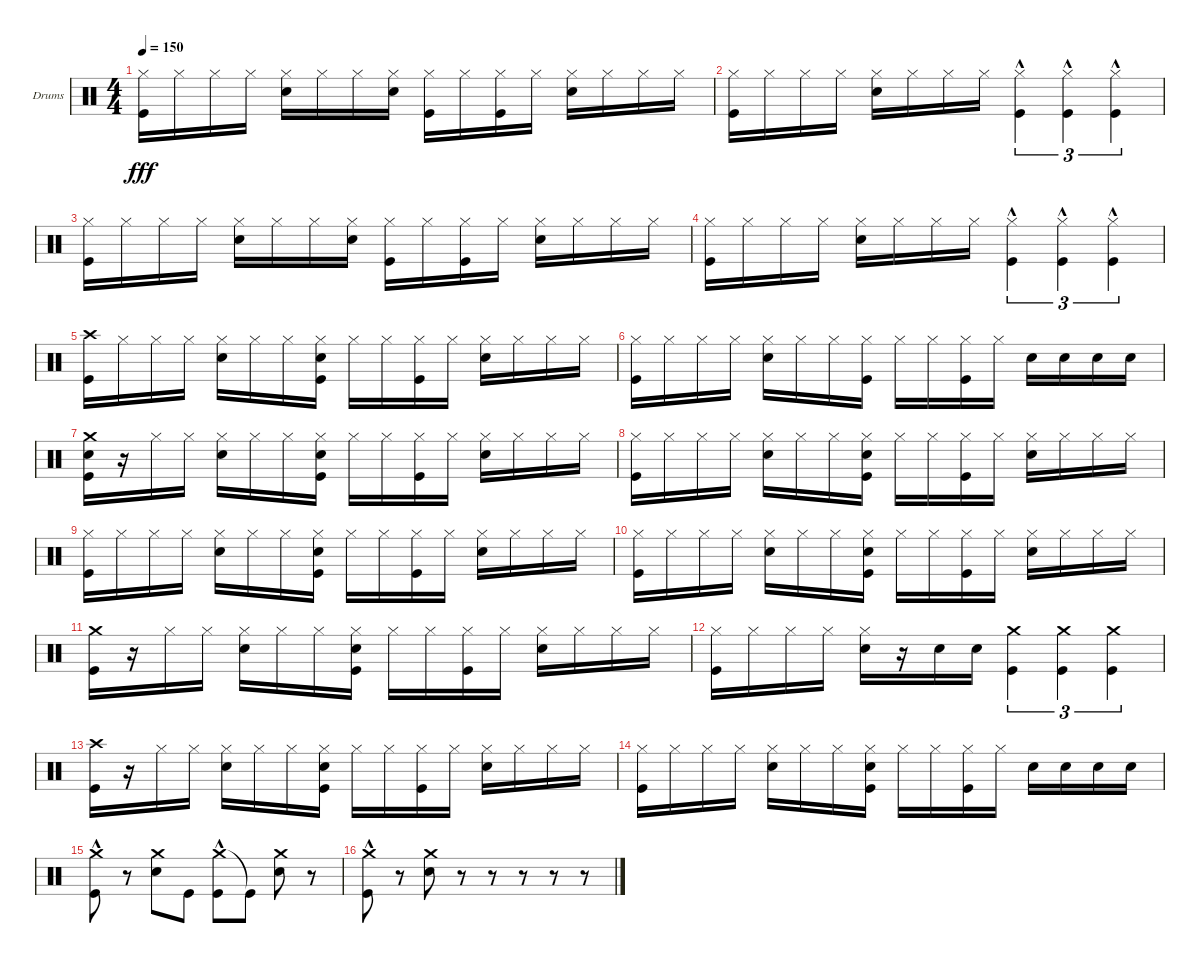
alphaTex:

\defaultSystemsLayout 4
\bracketExtendMode groupsimilarinstruments
\firstSystemTrackNameOrientation horizontal
\otherSystemsTrackNameOrientation horizontal
\track ("Matt Helders" "Drums") {instrument percussion}
\staff {score}
\articulation defaults
\ts (4 4)
\tempo 150
\clef neutral
\ks c
("Hi-Hat (closed)" "Kick (hit)").16{dy fff} "Hi-Hat (closed)".16 "Hi-Hat (closed)".16 "Hi-Hat (closed)".16 ("Hi-Hat (closed)" "Snare (hit) 2").16 "Hi-Hat (closed)".16 "Hi-Hat (closed)".16 ("Hi-Hat (closed)" "Snare (hit) 2").16 ("Hi-Hat (closed)" "Kick (hit)").16 "Hi-Hat (closed)".16 ("Hi-Hat (closed)" "Kick (hit)").16 "Hi-Hat (closed)".16 ("Hi-Hat (closed)" "Snare (hit) 2").16 "Hi-Hat (closed)".16 "Hi-Hat (closed)".16 "Hi-Hat (closed)".16 |
("Hi-Hat (closed)" "Kick (hit)").16 "Hi-Hat (closed)".16 "Hi-Hat (closed)".16 "Hi-Hat (closed)".16 ("Hi-Hat (closed)" "Snare (hit) 2").16 "Hi-Hat (closed)".16 "Hi-Hat (closed)".16 "Hi-Hat (closed)".16 ("Kick (hit)" "Hi-Hat (closed)"{hac}).4{tu (3 2)} ("Kick (hit)" "Hi-Hat (closed)"{hac}).4{tu (3 2)} ("Kick (hit)" "Hi-Hat (closed)"{hac}).4{tu (3 2)} |
("Hi-Hat (closed)" "Kick (hit)").16 "Hi-Hat (closed)".16 "Hi-Hat (closed)".16 "Hi-Hat (closed)".16 ("Hi-Hat (closed)" "Snare (hit) 2").16 "Hi-Hat (closed)".16 "Hi-Hat (closed)".16 ("Hi-Hat (closed)" "Snare (hit) 2").16 ("Hi-Hat (closed)" "Kick (hit)").16 "Hi-Hat (closed)".16 ("Hi-Hat (closed)" "Kick (hit)").16 "Hi-Hat (closed)".16 ("Hi-Hat (closed)" "Snare (hit) 2").16 "Hi-Hat (closed)".16 "Hi-Hat (closed)".16 "Hi-Hat (closed)".16 |
("Hi-Hat (closed)" "Kick (hit)").16 "Hi-Hat (closed)".16 "Hi-Hat (closed)".16 "Hi-Hat (closed)".16 ("Hi-Hat (closed)" "Snare (hit) 2").16 "Hi-Hat (closed)".16 "Hi-Hat (closed)".16 "Hi-Hat (closed)".16 ("Kick (hit)" "Hi-Hat (closed)"{hac}).4{tu (3 2)} ("Kick (hit)" "Hi-Hat (closed)"{hac}).4{tu (3 2)} ("Kick (hit)" "Hi-Hat (closed)"{hac}).4{tu (3 2)} |
("Crash high (hit)" "Kick (hit)").16 "Hi-Hat (closed)".16 "Hi-Hat (closed)".16 "Hi-Hat (closed)".16 ("Hi-Hat (closed)" "Snare (hit) 2").16 "Hi-Hat (closed)".16 "Hi-Hat (closed)".16 ("Hi-Hat (closed)" "Snare (hit) 2" "Kick (hit)").16 "Hi-Hat (closed)".16 "Hi-Hat (closed)".16 ("Hi-Hat (closed)" "Kick (hit)").16 "Hi-Hat (closed)".16 ("Hi-Hat (closed)" "Snare (hit) 2").16 "Hi-Hat (closed)".16 "Hi-Hat (closed)".16 "Hi-Hat (closed)".16 |
("Hi-Hat (closed)" "Kick (hit)").16 "Hi-Hat (closed)".16 "Hi-Hat (closed)".16 "Hi-Hat (closed)".16 ("Hi-Hat (closed)" "Snare (hit) 2").16 "Hi-Hat (closed)".16 "Hi-Hat (closed)".16 ("Hi-Hat (closed)" "Kick (hit)").16 "Hi-Hat (closed)".16 "Hi-Hat (closed)".16 ("Hi-Hat (closed)" "Kick (hit)").16 "Hi-Hat (closed)".16 "Snare (hit) 2".16 "Snare (hit) 2".16 "Snare (hit) 2".16 "Snare (hit) 2".16 |
("Crash medium (hit)" "Snare (hit) 2" "Kick (hit)").16 r.16 "Hi-Hat (closed)".16 "Hi-Hat (closed)".16 ("Hi-Hat (closed)" "Snare (hit) 2").16 "Hi-Hat (closed)".16 "Hi-Hat (closed)".16 ("Hi-Hat (closed)" "Snare (hit) 2" "Kick (hit)").16 "Hi-Hat (closed)".16 "Hi-Hat (closed)".16 ("Hi-Hat (closed)" "Kick (hit)").16 "Hi-Hat (closed)".16 ("Hi-Hat (closed)" "Snare (hit) 2").16 "Hi-Hat (closed)".16 "Hi-Hat (closed)".16 "Hi-Hat (closed)".16 |
("Hi-Hat (closed)" "Kick (hit)").16 "Hi-Hat (closed)".16 "Hi-Hat (closed)".16 "Hi-Hat (closed)".16 ("Hi-Hat (closed)" "Snare (hit) 2").16 "Hi-Hat (closed)".16 "Hi-Hat (closed)".16 ("Hi-Hat (closed)" "Snare (hit) 2" "Kick (hit)").16 "Hi-Hat (closed)".16 "Hi-Hat (closed)".16 ("Hi-Hat (closed)" "Kick (hit)").16 "Hi-Hat (closed)".16 ("Hi-Hat (closed)" "Snare (hit) 2").16 "Hi-Hat (closed)".16 "Hi-Hat (closed)".16 "Hi-Hat (closed)".16 |
("Hi-Hat (closed)" "Kick (hit)").16 "Hi-Hat (closed)".16 "Hi-Hat (closed)".16 "Hi-Hat (closed)".16 ("Hi-Hat (closed)" "Snare (hit) 2").16 "Hi-Hat (closed)".16 "Hi-Hat (closed)".16 ("Hi-Hat (closed)" "Snare (hit) 2" "Kick (hit)").16 "Hi-Hat (closed)".16 "Hi-Hat (closed)".16 ("Hi-Hat (closed)" "Kick (hit)").16 "Hi-Hat (closed)".16 ("Hi-Hat (closed)" "Snare (hit) 2").16 "Hi-Hat (closed)".16 "Hi-Hat (closed)".16 "Hi-Hat (closed)".16 |
("Hi-Hat (closed)" "Kick (hit)").16 "Hi-Hat (closed)".16 "Hi-Hat (closed)".16 "Hi-Hat (closed)".16 ("Hi-Hat (closed)" "Snare (hit) 2").16 "Hi-Hat (closed)".16 "Hi-Hat (closed)".16 ("Hi-Hat (closed)" "Snare (hit) 2" "Kick (hit)").16 "Hi-Hat (closed)".16 "Hi-Hat (closed)".16 ("Hi-Hat (closed)" "Kick (hit)").16 "Hi-Hat (closed)".16 ("Hi-Hat (closed)" "Snare (hit) 2").16 "Hi-Hat (closed)".16 "Hi-Hat (closed)".16 "Hi-Hat (closed)".16 |
("Crash medium (hit)" "Kick (hit)").16 r.16 "Hi-Hat (closed)".16 "Hi-Hat (closed)".16 ("Hi-Hat (closed)" "Snare (hit) 2").16 "Hi-Hat (closed)".16 "Hi-Hat (closed)".16 ("Hi-Hat (closed)" "Snare (hit) 2" "Kick (hit)").16 "Hi-Hat (closed)".16 "Hi-Hat (closed)".16 ("Hi-Hat (closed)" "Kick (hit)").16 "Hi-Hat (closed)".16 ("Hi-Hat (closed)" "Snare (hit) 2").16 "Hi-Hat (closed)".16 "Hi-Hat (closed)".16 "Hi-Hat (closed)".16 |
("Hi-Hat (closed)" "Kick (hit)").16 "Hi-Hat (closed)".16 "Hi-Hat (closed)".16 "Hi-Hat (closed)".16 ("Hi-Hat (closed)" "Snare (hit) 2").16 r.16 "Snare (hit) 2".16 "Snare (hit) 2".16 ("Kick (hit)" "Crash medium (hit)").4{tu (3 2)} ("Kick (hit)" "Crash medium (hit)").4{tu (3 2)} ("Kick (hit)" "Crash medium (hit)").4{tu (3 2)} |
("Crash high (hit)" "Kick (hit)").16 r.16 "Hi-Hat (closed)".16 "Hi-Hat (closed)".16 ("Hi-Hat (closed)" "Snare (hit) 2").16 "Hi-Hat (closed)".16 "Hi-Hat (closed)".16 ("Hi-Hat (closed)" "Snare (hit) 2" "Kick (hit)").16 "Hi-Hat (closed)".16 "Hi-Hat (closed)".16 ("Hi-Hat (closed)" "Kick (hit)").16 "Hi-Hat (closed)".16 ("Hi-Hat (closed)" "Snare (hit) 2").16 "Hi-Hat (closed)".16 "Hi-Hat (closed)".16 "Hi-Hat (closed)".16 |
("Hi-Hat (closed)" "Kick (hit)").16 "Hi-Hat (closed)".16 "Hi-Hat (closed)".16 "Hi-Hat (closed)".16 ("Hi-Hat (closed)" "Snare (hit) 2").16 "Hi-Hat (closed)".16 "Hi-Hat (closed)".16 ("Hi-Hat (closed)" "Snare (hit) 2" "Kick (hit)").16 "Hi-Hat (closed)".16 "Hi-Hat (closed)".16 ("Hi-Hat (closed)" "Kick (hit)").16 "Hi-Hat (closed)".16 "Snare (hit) 2".16 "Snare (hit) 2".16 "Snare (hit) 2".16 "Snare (hit) 2".16 |
("Crash medium (hit)" "Kick (hit)"{hac}).8 r.8 ("Crash medium (hit)" "Snare (hit) 2").8 "Kick (hit)".8 ("Crash medium (hit)" "Kick (hit)"{hac}).8 "Kick (hit)"{t}.8 ("Crash medium (hit)" "Snare (hit) 2").8 r.8 |
("Crash medium (hit)" "Kick (hit)"{hac}).8 r.8 ("Crash medium (hit)" "Snare (hit) 2").8 r.8 r.8 r.8 r.8 r.8
